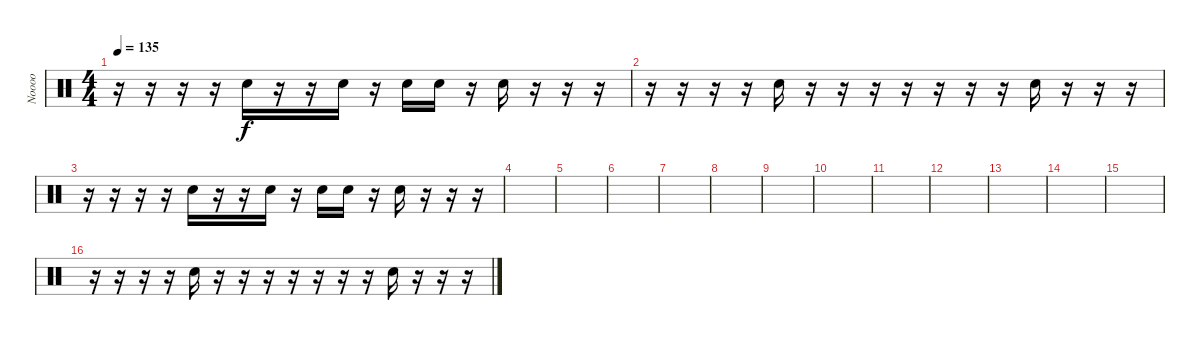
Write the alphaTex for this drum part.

\track ("Noooo" "Noooo") {instrument percussion}
\staff {score}
\articulation defaults
\ts (4 4)
\tempo 135
\clef neutral
\ks c
r.16{dy f} r.16 r.16 r.16 "Hand Clap (hit)".16 r.16 r.16 "Hand Clap (hit)".16 r.16 "Hand Clap (hit)".16 "Hand Clap (hit)".16 r.16 "Hand Clap (hit)".16 r.16 r.16 r.16 |
r.16 r.16 r.16 r.16 "Hand Clap (hit)".16 r.16 r.16 r.16 r.16 r.16 r.16 r.16 "Hand Clap (hit)".16 r.16 r.16 r.16 |
r.16 r.16 r.16 r.16 "Hand Clap (hit)".16 r.16 r.16 "Hand Clap (hit)".16 r.16 "Hand Clap (hit)".16 "Hand Clap (hit)".16 r.16 "Hand Clap (hit)".16 r.16 r.16 r.16 |
|
|
|
|
|
|
|
|
|
|
|
|
r.16 r.16 r.16 r.16 "Hand Clap (hit)".16 r.16 r.16 r.16 r.16 r.16 r.16 r.16 "Hand Clap (hit)".16 r.16 r.16 r.16
